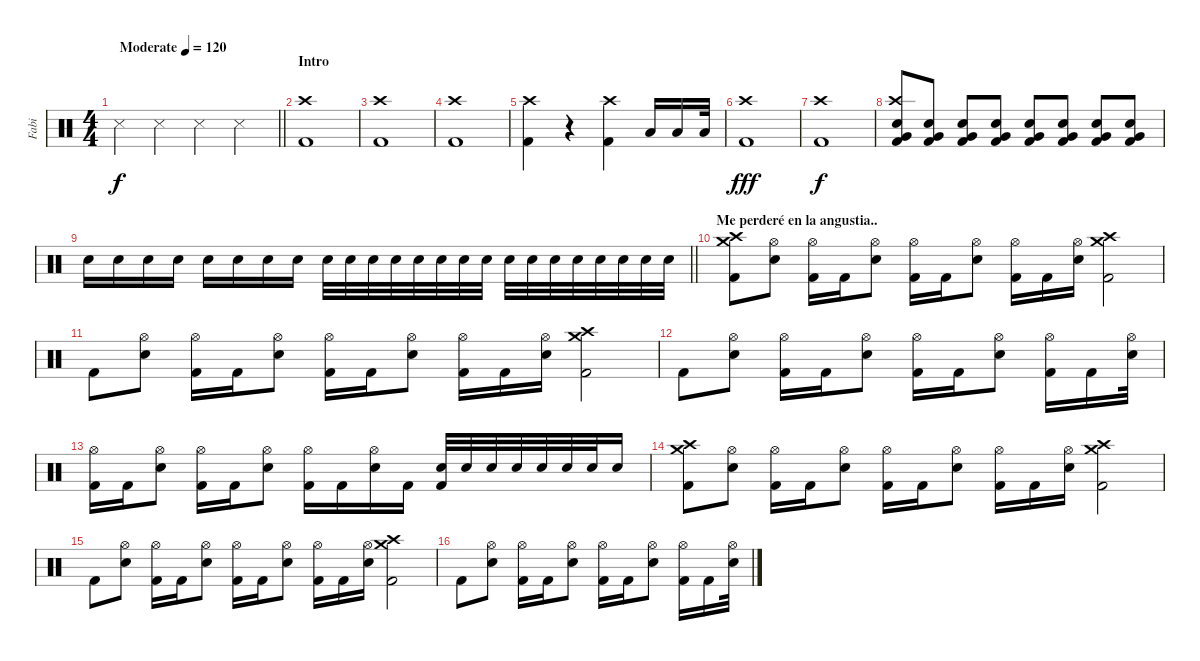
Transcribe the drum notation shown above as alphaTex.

\track ("Fabi" "Fabi") {instrument percussion}
\staff {score}
\articulation defaults
\ts (4 4)
\tempo (120 "Moderate")
\clef neutral
\barLineRight lightlight
\ks c "Snare (side stick) 3".4{dy f} "Snare (side stick) 3".4 "Snare (side stick) 3".4 "Snare (side stick) 3".4
|
\section ("" "Intro")
("Kick (hit) 2" "Crash high (hit)").1 |
("Kick (hit) 2" "Crash high (hit)").1 |
("Kick (hit) 2" "Crash high (hit)").1 |
("Kick (hit) 2" "Crash high (hit)").4 r.4 ("Kick (hit) 2" "Crash high (hit)").4 "Low Tom (hit)".16 "Low Floor Tom (hit)".16 "Low Floor Tom (hit)".32 |
("Kick (hit) 2" "Crash high (hit)").1{dy fff} |
("Kick (hit) 2" "Crash high (hit)").1{dy f} |
("Kick (hit) 2" "Snare (hit) 2" "Very Low Tom (hit)" "Crash high (hit)").8 ("Kick (hit) 2" "Snare (hit) 2" "Very Low Tom (hit)").8 ("Kick (hit) 2" "Snare (hit) 2" "Very Low Tom (hit)").8 ("Kick (hit) 2" "Snare (hit) 2" "Very Low Tom (hit)").8 ("Kick (hit) 2" "Snare (hit) 2" "Very Low Tom (hit)").8 ("Kick (hit) 2" "Snare (hit) 2" "Very Low Tom (hit)").8 ("Kick (hit) 2" "Snare (hit) 2" "Very Low Tom (hit)").8 ("Kick (hit) 2" "Snare (hit) 2" "Very Low Tom (hit)").8 |
\barLineRight lightlight "Snare (hit) 2".16 "Snare (hit) 2".16 "Snare (hit) 2".16 "Snare (hit) 2".16 "Snare (hit) 2".16 "Snare (hit) 2".16 "Snare (hit) 2".16 "Snare (hit) 2".16 "Snare (hit) 2".32 "Snare (hit) 2".32 "Snare (hit) 2".32 "Snare (hit) 2".32 "Snare (hit) 2".32 "Snare (hit) 2".32 "Snare (hit) 2".32 "Snare (hit) 2".32 "Snare (hit) 2".32 "Snare (hit) 2".32 "Snare (hit) 2".32 "Snare (hit) 2".32 "Snare (hit) 2".32 "Snare (hit) 2".32 "Snare (hit) 2".32 "Snare (hit) 2".32
|
\section ("" "Me perderé en la angustia..")
("Crash high (hit)" "Crash medium (hit)" "Kick (hit) 2").8 ("Hi-Hat (open)" "Snare (hit) 2").8 ("Hi-Hat (open)" "Kick (hit) 2").16 "Kick (hit) 2".16 ("Hi-Hat (open)" "Snare (hit) 2").8 ("Hi-Hat (open)" "Kick (hit) 2").16 "Kick (hit) 2".16 ("Hi-Hat (open)" "Snare (hit) 2").8 ("Hi-Hat (open)" "Kick (hit) 2").16 "Kick (hit) 2".16 ("Hi-Hat (open)" "Snare (hit) 2").16 ("Crash high (hit)" "Crash medium (hit)" "Kick (hit) 2").2 |
"Kick (hit) 2".8 ("Hi-Hat (open)" "Snare (hit) 2").8 ("Hi-Hat (open)" "Kick (hit) 2").16 "Kick (hit) 2".16 ("Hi-Hat (open)" "Snare (hit) 2").8 ("Hi-Hat (open)" "Kick (hit) 2").16 "Kick (hit) 2".16 ("Hi-Hat (open)" "Snare (hit) 2").8 ("Hi-Hat (open)" "Kick (hit) 2").16 "Kick (hit) 2".16 ("Hi-Hat (open)" "Snare (hit) 2").16 ("Crash high (hit)" "Crash medium (hit)" "Kick (hit) 2").2 |
"Kick (hit) 2".8 ("Hi-Hat (open)" "Snare (hit) 2").8 ("Hi-Hat (open)" "Kick (hit) 2").16 "Kick (hit) 2".16 ("Hi-Hat (open)" "Snare (hit) 2").8 ("Hi-Hat (open)" "Kick (hit) 2").16 "Kick (hit) 2".16 ("Hi-Hat (open)" "Snare (hit) 2").8 ("Hi-Hat (open)" "Kick (hit) 2").16 "Kick (hit) 2".16 ("Hi-Hat (open)" "Snare (hit) 2").32 |
("Hi-Hat (open)" "Kick (hit) 2").16 "Kick (hit) 2".16 ("Hi-Hat (open)" "Snare (hit) 2").8 ("Hi-Hat (open)" "Kick (hit) 2").16 "Kick (hit) 2".16 ("Hi-Hat (open)" "Snare (hit) 2").8 ("Hi-Hat (open)" "Kick (hit) 2").16 "Kick (hit) 2".16 ("Hi-Hat (open)" "Snare (hit) 2").16 "Kick (hit) 2".16 ("Snare (hit) 2" "Kick (hit) 2").32 "Snare (hit) 2".32 "Snare (hit) 2".32 "Snare (hit) 2".32 "Snare (hit) 2".32 "Snare (hit) 2".32 "Snare (hit) 2".32 "Snare (hit) 2".16 |
("Crash high (hit)" "Crash medium (hit)" "Kick (hit) 2").8 ("Hi-Hat (open)" "Snare (hit) 2").8 ("Hi-Hat (open)" "Kick (hit) 2").16 "Kick (hit) 2".16 ("Hi-Hat (open)" "Snare (hit) 2").8 ("Hi-Hat (open)" "Kick (hit) 2").16 "Kick (hit) 2".16 ("Hi-Hat (open)" "Snare (hit) 2").8 ("Hi-Hat (open)" "Kick (hit) 2").16 "Kick (hit) 2".16 ("Hi-Hat (open)" "Snare (hit) 2").16 ("Crash high (hit)" "Crash medium (hit)" "Kick (hit) 2").2 |
"Kick (hit) 2".8 ("Hi-Hat (open)" "Snare (hit) 2").8 ("Hi-Hat (open)" "Kick (hit) 2").16 "Kick (hit) 2".16 ("Hi-Hat (open)" "Snare (hit) 2").8 ("Hi-Hat (open)" "Kick (hit) 2").16 "Kick (hit) 2".16 ("Hi-Hat (open)" "Snare (hit) 2").8 ("Hi-Hat (open)" "Kick (hit) 2").16 "Kick (hit) 2".16 ("Hi-Hat (open)" "Snare (hit) 2").16 ("Crash high (hit)" "Crash medium (hit)" "Kick (hit) 2").2 |
"Kick (hit) 2".8 ("Hi-Hat (open)" "Snare (hit) 2").8 ("Hi-Hat (open)" "Kick (hit) 2").16 "Kick (hit) 2".16 ("Hi-Hat (open)" "Snare (hit) 2").8 ("Hi-Hat (open)" "Kick (hit) 2").16 "Kick (hit) 2".16 ("Hi-Hat (open)" "Snare (hit) 2").8 ("Hi-Hat (open)" "Kick (hit) 2").16 "Kick (hit) 2".16 ("Hi-Hat (open)" "Snare (hit) 2").32
